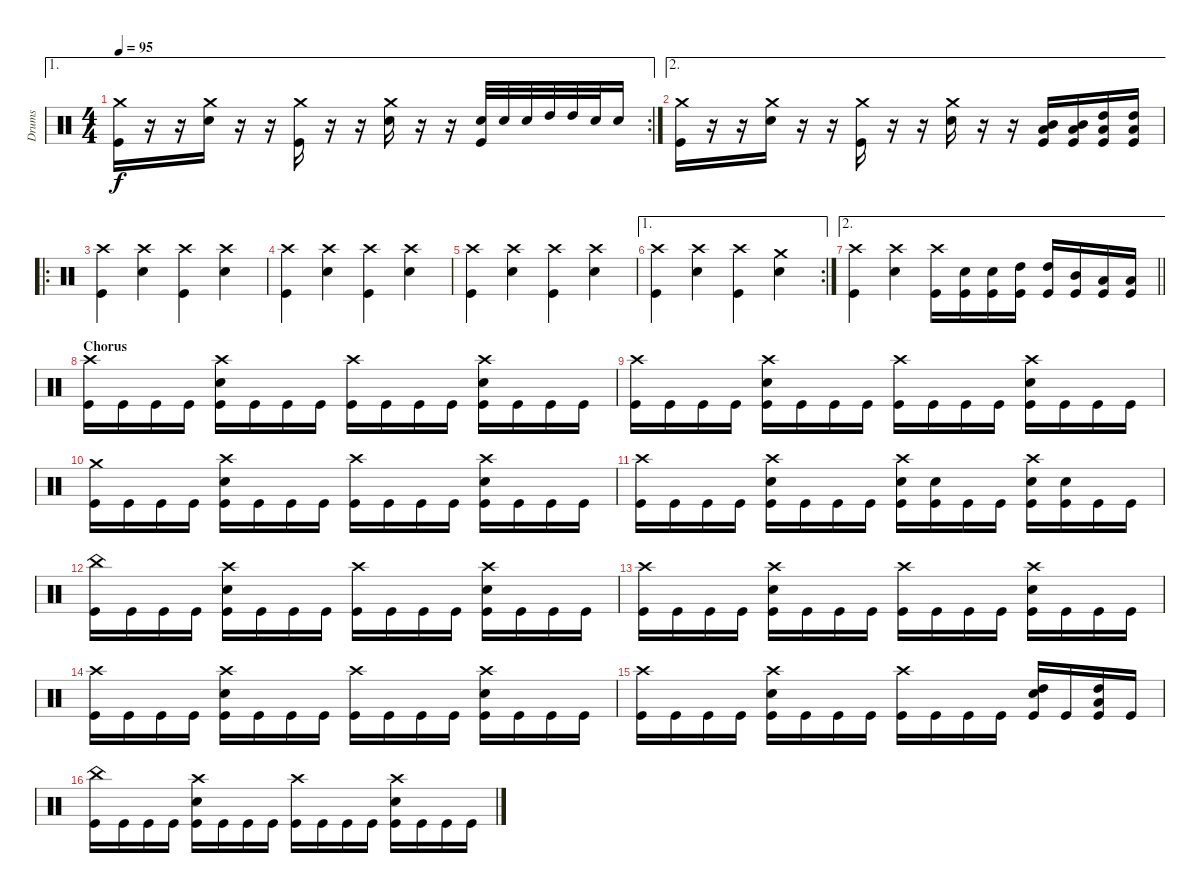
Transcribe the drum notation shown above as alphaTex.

\track ("Drums" "Drums") {instrument percussion}
\staff {score}
\articulation defaults
\ae 1
\rc 2
\ts (4 4)
\tempo 95
\clef neutral
\ks c
("Crash medium (hit)" "Kick (hit)").16{dy f} r.16 r.16 ("Crash medium (hit)" "Snare (hit) 2").16 r.16 r.16 ("Crash medium (hit)" "Kick (hit)").16 r.16 r.16 ("Crash medium (hit)" "Snare (hit) 2").16 r.16 r.16 ("Snare (hit) 2" "Kick (hit)").32 "Snare (hit) 2".32 "Snare (hit) 2".32 "High Tom (hit)".32 "High Tom (hit)".32 "Snare (hit) 2".32 "Snare (hit) 2".16 |
\ae 2
("Crash medium (hit)" "Kick (hit)").16 r.16 r.16 ("Crash medium (hit)" "Snare (hit) 2").16 r.16 r.16 ("Crash medium (hit)" "Kick (hit)").16 r.16 r.16 ("Crash medium (hit)" "Snare (hit) 2").16 r.16 r.16 ("Mid Tom (hit)" "Low Tom (hit)" "Kick (hit)").16 ("Mid Tom (hit)" "Low Tom (hit)" "Kick (hit)").16 ("High Tom (hit)" "Low Tom (hit)" "Kick (hit)").16 ("High Tom (hit)" "Low Tom (hit)" "Kick (hit)").16 |
\ro
("Crash high (hit)" "Kick (hit)").4 ("Crash high (hit)" "Snare (hit) 2").4 ("Crash high (hit)" "Kick (hit)").4 ("Crash high (hit)" "Snare (hit) 2").4 |
("Crash high (hit)" "Kick (hit)").4 ("Crash high (hit)" "Snare (hit) 2").4 ("Crash high (hit)" "Kick (hit)").4 ("Crash high (hit)" "Snare (hit) 2").4 |
("Crash high (hit)" "Kick (hit)").4 ("Crash high (hit)" "Snare (hit) 2").4 ("Crash high (hit)" "Kick (hit)").4 ("Crash high (hit)" "Snare (hit) 2").4 |
\ae 1
\rc 2
("Crash high (hit)" "Kick (hit)").4 ("Crash high (hit)" "Snare (hit) 2").4 ("Crash high (hit)" "Kick (hit)").4 ("Crash medium (hit)" "Snare (hit) 2").4 |
\ae 2
\barLineRight lightlight
("Crash high (hit)" "Kick (hit)").4 ("Crash high (hit)" "Snare (hit) 2").4 ("Crash high (hit)" "Kick (hit)").16 ("Snare (hit) 2" "Kick (hit)").16 ("Snare (hit) 2" "Kick (hit)").16 ("High Tom (hit)" "Kick (hit)").16 ("High Tom (hit)" "Kick (hit)").16 ("Mid Tom (hit)" "Kick (hit)").16 ("Low Tom (hit)" "Kick (hit)").16 ("Low Tom (hit)" "Kick (hit)").16 |
\section ("" "Chorus")
("Crash high (hit)" "Kick (hit)").16 "Kick (hit)".16 "Kick (hit)".16 "Kick (hit)".16 ("Crash high (hit)" "Snare (hit) 2" "Kick (hit)").16 "Kick (hit)".16 "Kick (hit)".16 "Kick (hit)".16 ("Crash high (hit)" "Kick (hit)").16 "Kick (hit)".16 "Kick (hit)".16 "Kick (hit)".16 ("Crash high (hit)" "Snare (hit) 2" "Kick (hit)").16 "Kick (hit)".16 "Kick (hit)".16 "Kick (hit)".16 |
("Crash high (hit)" "Kick (hit)").16 "Kick (hit)".16 "Kick (hit)".16 "Kick (hit)".16 ("Crash high (hit)" "Snare (hit) 2" "Kick (hit)").16 "Kick (hit)".16 "Kick (hit)".16 "Kick (hit)".16 ("Crash high (hit)" "Kick (hit)").16 "Kick (hit)".16 "Kick (hit)".16 "Kick (hit)".16 ("Crash high (hit)" "Snare (hit) 2" "Kick (hit)").16 "Kick (hit)".16 "Kick (hit)".16 "Kick (hit)".16 |
("Crash medium (hit)" "Kick (hit)").16 "Kick (hit)".16 "Kick (hit)".16 "Kick (hit)".16 ("Crash high (hit)" "Snare (hit) 2" "Kick (hit)").16 "Kick (hit)".16 "Kick (hit)".16 "Kick (hit)".16 ("Crash high (hit)" "Kick (hit)").16 "Kick (hit)".16 "Kick (hit)".16 "Kick (hit)".16 ("Crash high (hit)" "Snare (hit) 2" "Kick (hit)").16 "Kick (hit)".16 "Kick (hit)".16 "Kick (hit)".16 |
("Crash high (hit)" "Kick (hit)").16 "Kick (hit)".16 "Kick (hit)".16 "Kick (hit)".16 ("Crash high (hit)" "Snare (hit) 2" "Kick (hit)").16 "Kick (hit)".16 "Kick (hit)".16 "Kick (hit)".16 ("Crash high (hit)" "Snare (hit) 2" "Kick (hit)").16 ("Snare (hit) 2" "Kick (hit)").16 "Kick (hit)".16 "Kick (hit)".16 ("Crash high (hit)" "Snare (hit) 2" "Kick (hit)").16 ("Snare (hit) 2" "Kick (hit)").16 "Kick (hit)".16 "Kick (hit)".16 |
("China (hit)" "Kick (hit)").16 "Kick (hit)".16 "Kick (hit)".16 "Kick (hit)".16 ("Crash high (hit)" "Snare (hit) 2" "Kick (hit)").16 "Kick (hit)".16 "Kick (hit)".16 "Kick (hit)".16 ("Crash high (hit)" "Kick (hit)").16 "Kick (hit)".16 "Kick (hit)".16 "Kick (hit)".16 ("Crash high (hit)" "Snare (hit) 2" "Kick (hit)").16 "Kick (hit)".16 "Kick (hit)".16 "Kick (hit)".16 |
("Crash high (hit)" "Kick (hit)").16 "Kick (hit)".16 "Kick (hit)".16 "Kick (hit)".16 ("Crash high (hit)" "Snare (hit) 2" "Kick (hit)").16 "Kick (hit)".16 "Kick (hit)".16 "Kick (hit)".16 ("Crash high (hit)" "Kick (hit)").16 "Kick (hit)".16 "Kick (hit)".16 "Kick (hit)".16 ("Crash high (hit)" "Snare (hit) 2" "Kick (hit)").16 "Kick (hit)".16 "Kick (hit)".16 "Kick (hit)".16 |
("Crash high (hit)" "Kick (hit)").16 "Kick (hit)".16 "Kick (hit)".16 "Kick (hit)".16 ("Crash high (hit)" "Snare (hit) 2" "Kick (hit)").16 "Kick (hit)".16 "Kick (hit)".16 "Kick (hit)".16 ("Crash high (hit)" "Kick (hit)").16 "Kick (hit)".16 "Kick (hit)".16 "Kick (hit)".16 ("Crash high (hit)" "Snare (hit) 2" "Kick (hit)").16 "Kick (hit)".16 "Kick (hit)".16 "Kick (hit)".16 |
("Crash high (hit)" "Kick (hit)").16 "Kick (hit)".16 "Kick (hit)".16 "Kick (hit)".16 ("Crash high (hit)" "Snare (hit) 2" "Kick (hit)").16 "Kick (hit)".16 "Kick (hit)".16 "Kick (hit)".16 ("Crash high (hit)" "Kick (hit)").16 "Kick (hit)".16 "Kick (hit)".16 "Kick (hit)".16 ("High Tom (hit)" "Snare (hit) 2" "Kick (hit)").16 "Kick (hit)".16 ("High Tom (hit)" "Low Tom (hit)" "Kick (hit)").16 "Kick (hit)".16 |
("China (hit)" "Kick (hit)").16 "Kick (hit)".16 "Kick (hit)".16 "Kick (hit)".16 ("Crash high (hit)" "Snare (hit) 2" "Kick (hit)").16 "Kick (hit)".16 "Kick (hit)".16 "Kick (hit)".16 ("Crash high (hit)" "Kick (hit)").16 "Kick (hit)".16 "Kick (hit)".16 "Kick (hit)".16 ("Crash high (hit)" "Snare (hit) 2" "Kick (hit)").16 "Kick (hit)".16 "Kick (hit)".16 "Kick (hit)".16
